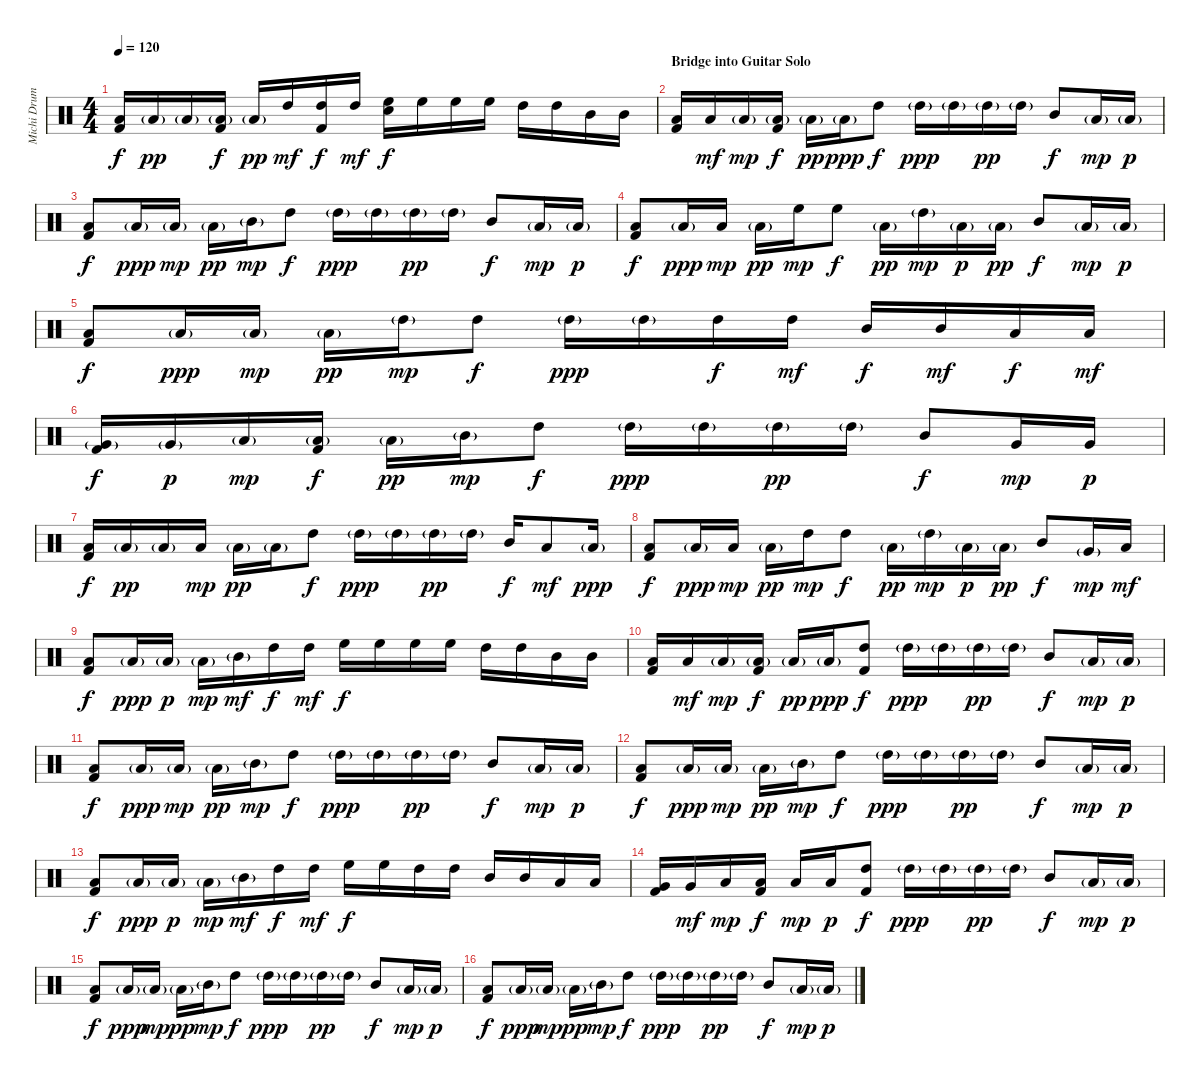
\track ("Michi Drums" "Michi Drum") {instrument percussion}
\staff {score}
\articulation defaults
\ts (4 4)
\tempo 120
\clef neutral
\ks c
("Low Floor Tom (hit)" "Kick (hit) 2").16{dy f} "Low Floor Tom (hit)"{g}.16{dy pp} "Low Floor Tom (hit)"{g}.16 ("Low Tom (hit)"{g} "Kick (hit) 2").16{dy f} "Low Tom (hit)"{g}.16{dy pp} "High Tom (hit)".16{dy mf} ("High Tom (hit)" "Kick (hit) 2").16{dy f} "High Tom (hit)".16{dy mf} ("High Floor Tom (hit)" "Electric Snare (hit)").16{dy f} "High Floor Tom (hit)".16 "High Floor Tom (hit)".16 "High Floor Tom (hit)".16 "High Tom (hit)".16 "High Tom (hit)".16 "Mid Tom (hit)".16 "Mid Tom (hit)".16 |
\section ("" "Bridge into Guitar Solo")
("Low Tom (hit)" "Kick (hit) 2").16 "Low Tom (hit)".16{dy mf} "Low Floor Tom (hit)"{g}.16{dy mp} ("Low Floor Tom (hit)"{g} "Kick (hit) 2").16{dy f} "Low Floor Tom (hit)"{g}.16{dy pp} "Low Floor Tom (hit)"{g}.16{dy ppp} "High Tom (hit)".8{dy f} "High Tom (hit)"{g}.16{dy ppp} "High Tom (hit)"{g}.16 "High Tom (hit)"{g}.16{dy pp} "High Tom (hit)"{g}.16 "Mid Tom (hit)".8{dy f} "Low Tom (hit)"{g}.16{dy mp} "Low Tom (hit)"{g}.16{dy p} |
("Low Floor Tom (hit)" "Kick (hit) 2").8{dy f} "Low Floor Tom (hit)"{g}.16{dy ppp} "Low Tom (hit)"{g}.16{dy mp} "Low Tom (hit)"{g}.16{dy pp} "Mid Tom (hit)"{g}.16{dy mp} "High Tom (hit)".8{dy f} "High Tom (hit)"{g}.16{dy ppp} "High Tom (hit)"{g}.16 "High Tom (hit)"{g}.16{dy pp} "High Tom (hit)"{g}.16 "Mid Tom (hit)".8{dy f} "Low Tom (hit)"{g}.16{dy mp} "Low Tom (hit)"{g}.16{dy p} |
("Low Floor Tom (hit)" "Kick (hit) 2").8{dy f} "Low Floor Tom (hit)"{g}.16{dy ppp} "Low Tom (hit)".16{dy mp} "Low Tom (hit)"{g}.16{dy pp} "High Floor Tom (hit)".16{dy mp} "High Floor Tom (hit)".8{dy f} "Low Tom (hit)"{g}.16{dy pp} "High Tom (hit)"{g}.16{dy mp} "Low Tom (hit)"{g}.16{dy p} "Low Tom (hit)"{g}.16{dy pp} "Mid Tom (hit)".8{dy f} "Low Tom (hit)"{g}.16{dy mp} "Low Tom (hit)"{g}.16{dy p} |
("Low Floor Tom (hit)" "Kick (hit) 2").8{dy f} "Low Floor Tom (hit)"{g}.16{dy ppp} "Low Tom (hit)"{g}.16{dy mp} "Low Tom (hit)"{g}.16{dy pp} "High Tom (hit)"{g}.16{dy mp} "High Tom (hit)".8{dy f} "High Tom (hit)"{g}.16{dy ppp} "High Tom (hit)"{g}.16 "High Tom (hit)".16{dy f} "High Tom (hit)".16{dy mf} "Mid Tom (hit)".16{dy f} "Mid Tom (hit)".16{dy mf} "Low Tom (hit)".16{dy f} "Low Tom (hit)".16{dy mf} |
("Very Low Tom (hit)"{g} "Kick (hit) 2").16{dy f} "Very Low Tom (hit)"{g}.16{dy p} "Low Floor Tom (hit)"{g}.16{dy mp} ("Low Floor Tom (hit)"{g} "Kick (hit) 2").16{dy f} "Low Floor Tom (hit)"{g}.16{dy pp} "Mid Tom (hit)"{g}.16{dy mp} "High Tom (hit)".8{dy f} "High Tom (hit)"{g}.16{dy ppp} "High Tom (hit)"{g}.16 "High Tom (hit)"{g}.16{dy pp} "High Tom (hit)"{g}.16 "Mid Tom (hit)".8{dy f} "Very Low Tom (hit)".16{dy mp} "Very Low Tom (hit)".16{dy p} |
("Low Floor Tom (hit)" "Kick (hit) 2").16{dy f} "Low Floor Tom (hit)"{g}.16{dy pp} "Low Floor Tom (hit)"{g}.16 "Low Tom (hit)".16{dy mp} "Low Tom (hit)"{g}.16{dy pp} "Low Tom (hit)"{g}.16 "High Tom (hit)".8{dy f} "High Tom (hit)"{g}.16{dy ppp} "High Tom (hit)"{g}.16 "High Tom (hit)"{g}.16{dy pp} "High Tom (hit)"{g}.16 "Mid Tom (hit)".16{dy f} "Low Floor Tom (hit)".8{dy mf} "Low Floor Tom (hit)"{g}.16{dy ppp} |
("Low Floor Tom (hit)" "Kick (hit) 2").8{dy f} "Low Floor Tom (hit)"{g}.16{dy ppp} "Low Tom (hit)".16{dy mp} "Low Tom (hit)"{g}.16{dy pp} "High Tom (hit)".16{dy mp} "High Tom (hit)".8{dy f} "Low Tom (hit)"{g}.16{dy pp} "High Tom (hit)"{g}.16{dy mp} "Low Tom (hit)"{g}.16{dy p} "Low Tom (hit)"{g}.16{dy pp} "Mid Tom (hit)".8{dy f} "Very Low Tom (hit)"{g}.16{dy mp} "Low Tom (hit)".16{dy mf} |
("Low Floor Tom (hit)" "Kick (hit) 2").8{dy f} "Low Floor Tom (hit)"{g}.16{dy ppp} "Low Tom (hit)"{g}.16{dy p} "Low Tom (hit)"{g}.16{dy mp} "Mid Tom (hit)"{g}.16{dy mf} "High Tom (hit)".16{dy f} "High Tom (hit)".16{dy mf} "High Floor Tom (hit)".16{dy f} "High Floor Tom (hit)".16 "High Floor Tom (hit)".16 "High Floor Tom (hit)".16 "High Tom (hit)".16 "High Tom (hit)".16 "Mid Tom (hit)".16 "Mid Tom (hit)".16 |
("Low Tom (hit)" "Kick (hit) 2").16 "Low Tom (hit)".16{dy mf} "Low Floor Tom (hit)"{g}.16{dy mp} ("Low Floor Tom (hit)"{g} "Kick (hit) 2").16{dy f} "Low Floor Tom (hit)"{g}.16{dy pp} "Low Floor Tom (hit)"{g}.16{dy ppp} ("High Tom (hit)" "Kick (hit) 2").8{dy f} "High Tom (hit)"{g}.16{dy ppp} "High Tom (hit)"{g}.16 "High Tom (hit)"{g}.16{dy pp} "High Tom (hit)"{g}.16 "Mid Tom (hit)".8{dy f} "Low Tom (hit)"{g}.16{dy mp} "Low Tom (hit)"{g}.16{dy p} |
("Low Floor Tom (hit)" "Kick (hit) 2").8{dy f} "Low Floor Tom (hit)"{g}.16{dy ppp} "Low Tom (hit)"{g}.16{dy mp} "Low Tom (hit)"{g}.16{dy pp} "Mid Tom (hit)"{g}.16{dy mp} "High Tom (hit)".8{dy f} "High Tom (hit)"{g}.16{dy ppp} "High Tom (hit)"{g}.16 "High Tom (hit)"{g}.16{dy pp} "High Tom (hit)"{g}.16 "Mid Tom (hit)".8{dy f} "Low Tom (hit)"{g}.16{dy mp} "Low Tom (hit)"{g}.16{dy p} |
("Low Floor Tom (hit)" "Kick (hit) 2").8{dy f} "Low Floor Tom (hit)"{g}.16{dy ppp} "Low Tom (hit)"{g}.16{dy mp} "Low Tom (hit)"{g}.16{dy pp} "Mid Tom (hit)"{g}.16{dy mp} "High Tom (hit)".8{dy f} "High Tom (hit)"{g}.16{dy ppp} "High Tom (hit)"{g}.16 "High Tom (hit)"{g}.16{dy pp} "High Tom (hit)"{g}.16 "Mid Tom (hit)".8{dy f} "Low Tom (hit)"{g}.16{dy mp} "Low Tom (hit)"{g}.16{dy p} |
("Low Floor Tom (hit)" "Kick (hit) 2").8{dy f} "Low Floor Tom (hit)"{g}.16{dy ppp} "Low Tom (hit)"{g}.16{dy p} "Low Tom (hit)"{g}.16{dy mp} "Mid Tom (hit)"{g}.16{dy mf} "High Tom (hit)".16{dy f} "High Tom (hit)".16{dy mf} "High Floor Tom (hit)".16{dy f} "High Floor Tom (hit)".16 "High Tom (hit)".16 "High Tom (hit)".16 "Mid Tom (hit)".16 "Mid Tom (hit)".16 "Low Tom (hit)".16 "Low Tom (hit)".16 |
("Very Low Tom (hit)" "Kick (hit) 2").16 "Very Low Tom (hit)".16{dy mf} "Low Floor Tom (hit)".16{dy mp} ("Low Floor Tom (hit)" "Kick (hit) 2").16{dy f} "Low Floor Tom (hit)".16{dy mp} "Low Floor Tom (hit)".16{dy p} ("High Tom (hit)" "Kick (hit) 2").8{dy f} "High Tom (hit)"{g}.16{dy ppp} "High Tom (hit)"{g}.16 "High Tom (hit)"{g}.16{dy pp} "High Tom (hit)"{g}.16 "Mid Tom (hit)".8{dy f} "Low Tom (hit)"{g}.16{dy mp} "Low Tom (hit)"{g}.16{dy p} |
("Low Floor Tom (hit)" "Kick (hit) 2").8{dy f} "Low Floor Tom (hit)"{g}.16{dy ppp} "Low Tom (hit)"{g}.16{dy mp} "Low Tom (hit)"{g}.16{dy pp} "Mid Tom (hit)"{g}.16{dy mp} "High Tom (hit)".8{dy f} "High Tom (hit)"{g}.16{dy ppp} "High Tom (hit)"{g}.16 "High Tom (hit)"{g}.16{dy pp} "High Tom (hit)"{g}.16 "Mid Tom (hit)".8{dy f} "Low Tom (hit)"{g}.16{dy mp} "Low Tom (hit)"{g}.16{dy p} |
("Low Floor Tom (hit)" "Kick (hit) 2").8{dy f} "Low Floor Tom (hit)"{g}.16{dy ppp} "Low Tom (hit)"{g}.16{dy mp} "Low Tom (hit)"{g}.16{dy pp} "Mid Tom (hit)"{g}.16{dy mp} "High Tom (hit)".8{dy f} "High Tom (hit)"{g}.16{dy ppp} "High Tom (hit)"{g}.16 "High Tom (hit)"{g}.16{dy pp} "High Tom (hit)"{g}.16 "Mid Tom (hit)".8{dy f} "Low Tom (hit)"{g}.16{dy mp} "Low Tom (hit)"{g}.16{dy p}
